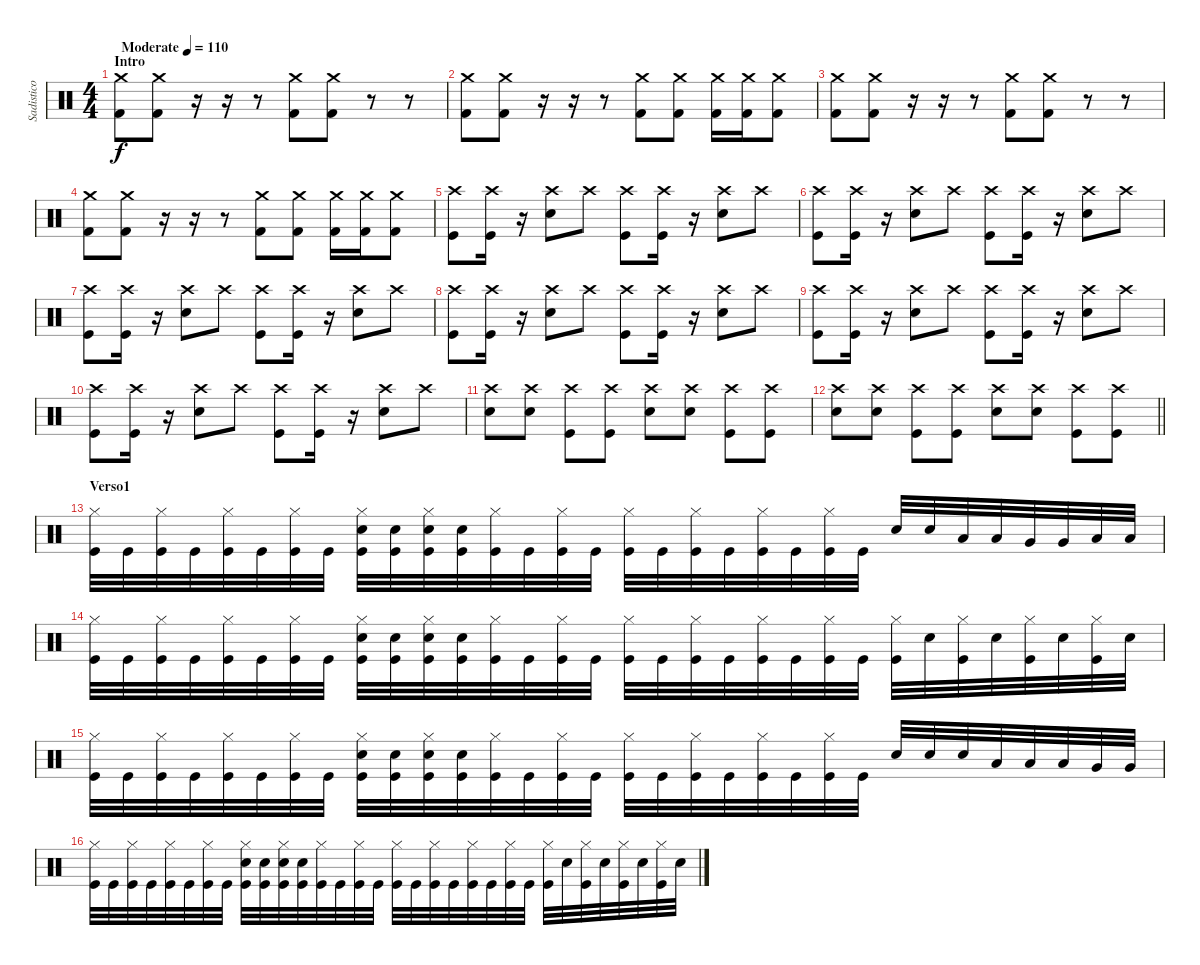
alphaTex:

\track ("Sadistico" "Sadistico") {solo instrument percussion}
\staff {score}
\articulation defaults
\ts (4 4)
\section ("" "Intro")
\tempo (110 "Moderate")
\clef neutral
\ks c
("Crash medium (hit)" "Kick (hit) 2").8{dy f} ("Crash medium (hit)" "Kick (hit) 2").8 r.16 r.16 r.8 ("Crash medium (hit)" "Kick (hit) 2").8 ("Crash medium (hit)" "Kick (hit) 2").8 r.8 r.8 |
("Crash medium (hit)" "Kick (hit) 2").8 ("Crash medium (hit)" "Kick (hit) 2").8 r.16 r.16 r.8 ("Crash medium (hit)" "Kick (hit) 2").8 ("Crash medium (hit)" "Kick (hit) 2").8 ("Crash medium (hit)" "Kick (hit) 2").16 ("Crash medium (hit)" "Kick (hit) 2").16 ("Crash medium (hit)" "Kick (hit) 2").8 |
("Crash medium (hit)" "Kick (hit) 2").8 ("Crash medium (hit)" "Kick (hit) 2").8 r.16 r.16 r.8 ("Crash medium (hit)" "Kick (hit) 2").8 ("Crash medium (hit)" "Kick (hit) 2").8 r.8 r.8 |
("Crash medium (hit)" "Kick (hit) 2").8 ("Crash medium (hit)" "Kick (hit) 2").8 r.16 r.16 r.8 ("Crash medium (hit)" "Kick (hit) 2").8 ("Crash medium (hit)" "Kick (hit) 2").8 ("Crash medium (hit)" "Kick (hit) 2").16 ("Crash medium (hit)" "Kick (hit) 2").16 ("Crash medium (hit)" "Kick (hit) 2").8 |
("Crash high (hit)" "Kick (hit)").8 ("Crash high (hit)" "Kick (hit)").16 r.16 ("Crash high (hit)" "Snare (hit) 2").8 "Crash high (hit)".8 ("Crash high (hit)" "Kick (hit)").8 ("Crash high (hit)" "Kick (hit)").16 r.16 ("Crash high (hit)" "Snare (hit) 2").8 "Crash high (hit)".8 |
("Crash high (hit)" "Kick (hit)").8 ("Crash high (hit)" "Kick (hit)").16 r.16 ("Crash high (hit)" "Snare (hit) 2").8 "Crash high (hit)".8 ("Crash high (hit)" "Kick (hit)").8 ("Crash high (hit)" "Kick (hit)").16 r.16 ("Crash high (hit)" "Snare (hit) 2").8 "Crash high (hit)".8 |
("Crash high (hit)" "Kick (hit)").8 ("Crash high (hit)" "Kick (hit)").16 r.16 ("Crash high (hit)" "Snare (hit) 2").8 "Crash high (hit)".8 ("Crash high (hit)" "Kick (hit)").8 ("Crash high (hit)" "Kick (hit)").16 r.16 ("Crash high (hit)" "Snare (hit) 2").8 "Crash high (hit)".8 |
("Crash high (hit)" "Kick (hit)").8 ("Crash high (hit)" "Kick (hit)").16 r.16 ("Crash high (hit)" "Snare (hit) 2").8 "Crash high (hit)".8 ("Crash high (hit)" "Kick (hit)").8 ("Crash high (hit)" "Kick (hit)").16 r.16 ("Crash high (hit)" "Snare (hit) 2").8 "Crash high (hit)".8 |
("Crash high (hit)" "Kick (hit)").8 ("Crash high (hit)" "Kick (hit)").16 r.16 ("Crash high (hit)" "Snare (hit) 2").8 "Crash high (hit)".8 ("Crash high (hit)" "Kick (hit)").8 ("Crash high (hit)" "Kick (hit)").16 r.16 ("Crash high (hit)" "Snare (hit) 2").8 "Crash high (hit)".8 |
("Crash high (hit)" "Kick (hit)").8 ("Crash high (hit)" "Kick (hit)").16 r.16 ("Crash high (hit)" "Snare (hit) 2").8 "Crash high (hit)".8 ("Crash high (hit)" "Kick (hit)").8 ("Crash high (hit)" "Kick (hit)").16 r.16 ("Crash high (hit)" "Snare (hit) 2").8 "Crash high (hit)".8 |
("Crash high (hit)" "Snare (hit) 2").8 ("Crash high (hit)" "Snare (hit) 2").8 ("Crash high (hit)" "Kick (hit)").8 ("Crash high (hit)" "Kick (hit)").8 ("Crash high (hit)" "Snare (hit) 2").8 ("Crash high (hit)" "Snare (hit) 2").8 ("Crash high (hit)" "Kick (hit)").8 ("Crash high (hit)" "Kick (hit)").8 |
\barLineRight lightlight
("Crash high (hit)" "Snare (hit) 2").8 ("Crash high (hit)" "Snare (hit) 2").8 ("Crash high (hit)" "Kick (hit)").8 ("Crash high (hit)" "Kick (hit)").8 ("Crash high (hit)" "Snare (hit) 2").8 ("Crash high (hit)" "Snare (hit) 2").8 ("Crash high (hit)" "Kick (hit)").8 ("Crash high (hit)" "Kick (hit)").8 |
\section ("" "Verso1")
("Hi-Hat (closed)" "Kick (hit)").32 "Kick (hit)".32 ("Hi-Hat (closed)" "Kick (hit)").32 "Kick (hit)".32 ("Hi-Hat (closed)" "Kick (hit)").32 "Kick (hit)".32 ("Hi-Hat (closed)" "Kick (hit)").32 "Kick (hit)".32 ("Hi-Hat (closed)" "Snare (hit) 2" "Kick (hit)").32 ("Snare (hit) 2" "Kick (hit)").32 ("Hi-Hat (closed)" "Snare (hit) 2" "Kick (hit)").32 ("Snare (hit) 2" "Kick (hit)").32 ("Hi-Hat (closed)" "Kick (hit)").32 "Kick (hit)".32 ("Hi-Hat (closed)" "Kick (hit)").32 "Kick (hit)".32 ("Hi-Hat (closed)" "Kick (hit)").32 "Kick (hit)".32 ("Hi-Hat (closed)" "Kick (hit)").32 "Kick (hit)".32 ("Hi-Hat (closed)" "Kick (hit)").32 "Kick (hit)".32 ("Hi-Hat (closed)" "Kick (hit)").32 "Kick (hit)".32 "Snare (hit) 2".32 "Snare (hit) 2".32 "Low Tom (hit)".32 "Low Tom (hit)".32 "Very Low Tom (hit)".32 "Very Low Tom (hit)".32 "Low Floor Tom (hit)".32 "Low Floor Tom (hit)".32 |
("Hi-Hat (closed)" "Kick (hit)").32 "Kick (hit)".32 ("Hi-Hat (closed)" "Kick (hit)").32 "Kick (hit)".32 ("Hi-Hat (closed)" "Kick (hit)").32 "Kick (hit)".32 ("Hi-Hat (closed)" "Kick (hit)").32 "Kick (hit)".32 ("Hi-Hat (closed)" "Snare (hit) 2" "Kick (hit)").32 ("Snare (hit) 2" "Kick (hit)").32 ("Hi-Hat (closed)" "Snare (hit) 2" "Kick (hit)").32 ("Snare (hit) 2" "Kick (hit)").32 ("Hi-Hat (closed)" "Kick (hit)").32 "Kick (hit)".32 ("Hi-Hat (closed)" "Kick (hit)").32 "Kick (hit)".32 ("Hi-Hat (closed)" "Kick (hit)").32 "Kick (hit)".32 ("Hi-Hat (closed)" "Kick (hit)").32 "Kick (hit)".32 ("Hi-Hat (closed)" "Kick (hit)").32 "Kick (hit)".32 ("Hi-Hat (closed)" "Kick (hit)").32 "Kick (hit)".32 ("Hi-Hat (closed)" "Kick (hit)").32 "Snare (hit) 2".32 ("Hi-Hat (closed)" "Kick (hit)").32 "Snare (hit) 2".32 ("Hi-Hat (closed)" "Kick (hit)").32 "Snare (hit) 2".32 ("Hi-Hat (closed)" "Kick (hit)").32 "Snare (hit) 2".32 |
("Hi-Hat (closed)" "Kick (hit)").32 "Kick (hit)".32 ("Hi-Hat (closed)" "Kick (hit)").32 "Kick (hit)".32 ("Hi-Hat (closed)" "Kick (hit)").32 "Kick (hit)".32 ("Hi-Hat (closed)" "Kick (hit)").32 "Kick (hit)".32 ("Hi-Hat (closed)" "Snare (hit) 2" "Kick (hit)").32 ("Snare (hit) 2" "Kick (hit)").32 ("Hi-Hat (closed)" "Snare (hit) 2" "Kick (hit)").32 ("Snare (hit) 2" "Kick (hit)").32 ("Hi-Hat (closed)" "Kick (hit)").32 "Kick (hit)".32 ("Hi-Hat (closed)" "Kick (hit)").32 "Kick (hit)".32 ("Hi-Hat (closed)" "Kick (hit)").32 "Kick (hit)".32 ("Hi-Hat (closed)" "Kick (hit)").32 "Kick (hit)".32 ("Hi-Hat (closed)" "Kick (hit)").32 "Kick (hit)".32 ("Hi-Hat (closed)" "Kick (hit)").32 "Kick (hit)".32 "Snare (hit) 2".32 "Snare (hit) 2".32 "Snare (hit) 2".32 "Low Tom (hit)".32 "Low Tom (hit)".32 "Low Tom (hit)".32 "Very Low Tom (hit)".32 "Very Low Tom (hit)".32 |
("Hi-Hat (closed)" "Kick (hit)").32 "Kick (hit)".32 ("Hi-Hat (closed)" "Kick (hit)").32 "Kick (hit)".32 ("Hi-Hat (closed)" "Kick (hit)").32 "Kick (hit)".32 ("Hi-Hat (closed)" "Kick (hit)").32 "Kick (hit)".32 ("Hi-Hat (closed)" "Snare (hit) 2" "Kick (hit)").32 ("Snare (hit) 2" "Kick (hit)").32 ("Hi-Hat (closed)" "Snare (hit) 2" "Kick (hit)").32 ("Snare (hit) 2" "Kick (hit)").32 ("Hi-Hat (closed)" "Kick (hit)").32 "Kick (hit)".32 ("Hi-Hat (closed)" "Kick (hit)").32 "Kick (hit)".32 ("Hi-Hat (closed)" "Kick (hit)").32 "Kick (hit)".32 ("Hi-Hat (closed)" "Kick (hit)").32 "Kick (hit)".32 ("Hi-Hat (closed)" "Kick (hit)").32 "Kick (hit)".32 ("Hi-Hat (closed)" "Kick (hit)").32 "Kick (hit)".32 ("Hi-Hat (closed)" "Kick (hit)").32 "Snare (hit) 2".32 ("Hi-Hat (closed)" "Kick (hit)").32 "Snare (hit) 2".32 ("Hi-Hat (closed)" "Kick (hit)").32 "Snare (hit) 2".32 ("Hi-Hat (closed)" "Kick (hit)").32 "Snare (hit) 2".32
